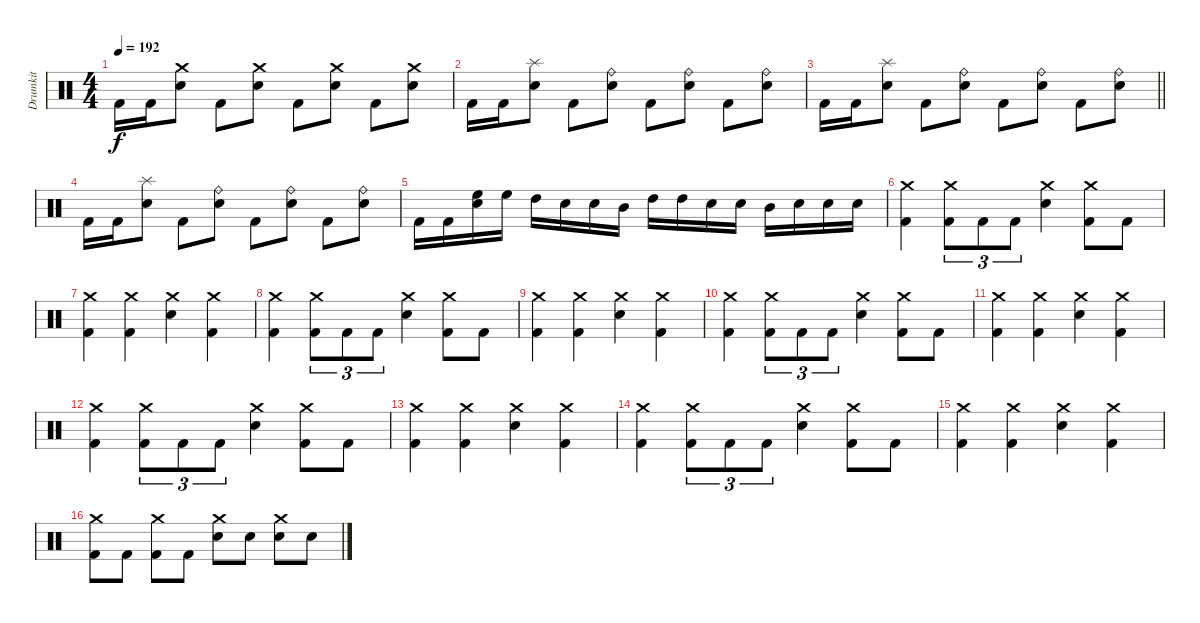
\track ("Drumkit" "Drumkit") {instrument percussion}
\staff {score}
\articulation defaults
\ts (4 4)
\tempo 192
\clef neutral
\ks c "Kick (hit) 2".16{dy f} "Kick (hit) 2".16
("Snare (hit) 2" "Crash medium (hit)").8 "Kick (hit) 2".8 ("Snare (hit) 2" "Crash medium (hit)").8 "Kick (hit) 2".8 ("Snare (hit) 2" "Crash medium (hit)").8 "Kick (hit) 2".8 ("Snare (hit) 2" "Crash medium (hit)").8 |
"Kick (hit) 2".16 "Kick (hit) 2".16 ("Snare (hit) 2" "Splash (hit)").8 "Kick (hit) 2".8 ("Snare (hit) 2" "Ride (bell)").8 "Kick (hit) 2".8 ("Snare (hit) 2" "Ride (bell)").8 "Kick (hit) 2".8 ("Snare (hit) 2" "Ride (bell)").8 |
\barLineRight lightlight "Kick (hit) 2".16 "Kick (hit) 2".16
("Snare (hit) 2" "Splash (hit)").8 "Kick (hit) 2".8 ("Snare (hit) 2" "Ride (bell)").8 "Kick (hit) 2".8 ("Snare (hit) 2" "Ride (bell)").8 "Kick (hit) 2".8 ("Snare (hit) 2" "Ride (bell)").8 |
"Kick (hit) 2".16 "Kick (hit) 2".16 ("Snare (hit) 2" "Splash (hit)").8 "Kick (hit) 2".8 ("Snare (hit) 2" "Ride (bell)").8 "Kick (hit) 2".8 ("Snare (hit) 2" "Ride (bell)").8 "Kick (hit) 2".8 ("Snare (hit) 2" "Ride (bell)").8 |
"Kick (hit) 2".16 "Kick (hit) 2".16 ("Snare (hit) 2" "High Floor Tom (hit)").16 "High Floor Tom (hit)".16 "High Tom (hit)".16 "Snare (hit) 2".16 "Snare (hit) 2".16 "Mid Tom (hit)".16 "High Tom (hit)".16 "High Tom (hit)".16 "Snare (hit) 2".16 "Snare (hit) 2".16 "Mid Tom (hit)".16 "Snare (hit) 2".16 "Snare (hit) 2".16 "Snare (hit) 2".16 |
("Kick (hit) 2" "Crash medium (hit)").4 ("Crash medium (hit)" "Kick (hit) 2").8{tu (3 2)} "Kick (hit) 2".8{tu (3 2)} "Kick (hit) 2".8{tu (3 2)} ("Snare (hit) 2" "Crash medium (hit)").4 ("Crash medium (hit)" "Kick (hit) 2").8 "Kick (hit) 2".8 |
("Kick (hit) 2" "Crash medium (hit)").4 ("Kick (hit) 2" "Crash medium (hit)").4 ("Snare (hit) 2" "Crash medium (hit)").4 ("Kick (hit) 2" "Crash medium (hit)").4 |
("Kick (hit) 2" "Crash medium (hit)").4 ("Crash medium (hit)" "Kick (hit) 2").8{tu (3 2)} "Kick (hit) 2".8{tu (3 2)} "Kick (hit) 2".8{tu (3 2)} ("Snare (hit) 2" "Crash medium (hit)").4 ("Crash medium (hit)" "Kick (hit) 2").8 "Kick (hit) 2".8 |
("Kick (hit) 2" "Crash medium (hit)").4 ("Kick (hit) 2" "Crash medium (hit)").4 ("Snare (hit) 2" "Crash medium (hit)").4 ("Kick (hit) 2" "Crash medium (hit)").4 |
("Kick (hit) 2" "Crash medium (hit)").4 ("Crash medium (hit)" "Kick (hit) 2").8{tu (3 2)} "Kick (hit) 2".8{tu (3 2)} "Kick (hit) 2".8{tu (3 2)} ("Snare (hit) 2" "Crash medium (hit)").4 ("Crash medium (hit)" "Kick (hit) 2").8 "Kick (hit) 2".8 |
("Kick (hit) 2" "Crash medium (hit)").4 ("Kick (hit) 2" "Crash medium (hit)").4 ("Snare (hit) 2" "Crash medium (hit)").4 ("Kick (hit) 2" "Crash medium (hit)").4 |
("Kick (hit) 2" "Crash medium (hit)").4 ("Crash medium (hit)" "Kick (hit) 2").8{tu (3 2)} "Kick (hit) 2".8{tu (3 2)} "Kick (hit) 2".8{tu (3 2)} ("Snare (hit) 2" "Crash medium (hit)").4 ("Crash medium (hit)" "Kick (hit) 2").8 "Kick (hit) 2".8 |
("Kick (hit) 2" "Crash medium (hit)").4 ("Kick (hit) 2" "Crash medium (hit)").4 ("Snare (hit) 2" "Crash medium (hit)").4 ("Kick (hit) 2" "Crash medium (hit)").4 |
("Kick (hit) 2" "Crash medium (hit)").4 ("Crash medium (hit)" "Kick (hit) 2").8{tu (3 2)} "Kick (hit) 2".8{tu (3 2)} "Kick (hit) 2".8{tu (3 2)} ("Snare (hit) 2" "Crash medium (hit)").4 ("Crash medium (hit)" "Kick (hit) 2").8 "Kick (hit) 2".8 |
("Kick (hit) 2" "Crash medium (hit)").4 ("Kick (hit) 2" "Crash medium (hit)").4 ("Snare (hit) 2" "Crash medium (hit)").4 ("Kick (hit) 2" "Crash medium (hit)").4 |
("Crash medium (hit)" "Kick (hit) 2").8 "Kick (hit) 2".8 ("Kick (hit) 2" "Crash medium (hit)").8 "Kick (hit) 2".8 ("Crash medium (hit)" "Snare (hit) 2").8 "Snare (hit) 2".8 ("Snare (hit) 2" "Crash medium (hit)").8 "Snare (hit) 2".8
